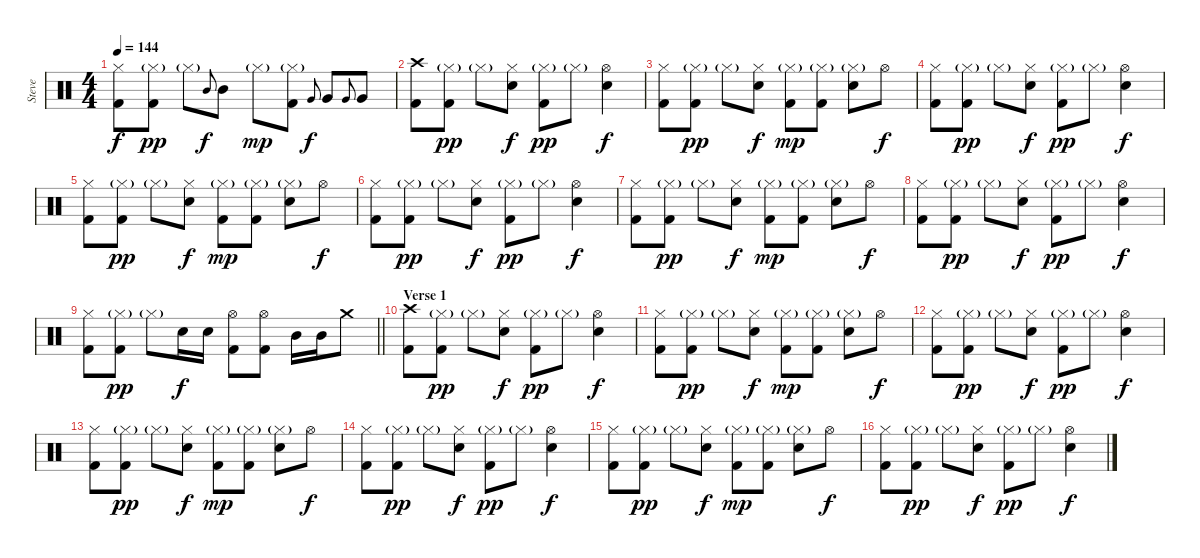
\track ("Steve" "Steve") {instrument percussion}
\staff {score}
\articulation defaults
\ts (4 4)
\tempo 144
\clef neutral
\ks c
("Hi-Hat (closed)" "Kick (hit) 2").8{dy f} ("Hi-Hat (closed)"{g} "Kick (hit) 2").8{dy pp} "Hi-Hat (closed)"{g}.8 "Mid Tom (hit)".8{gr onbeat dy f} "Mid Tom (hit)".8 "Hi-Hat (closed)"{g}.8{dy mp} ("Hi-Hat (closed)"{g} "Kick (hit) 2").8 "Very Low Tom (hit)".8{gr onbeat dy f} "Very Low Tom (hit)".8 "Very Low Tom (hit)".8{gr onbeat} "Very Low Tom (hit)".8 |
("Crash high (hit)" "Kick (hit) 2").8 ("Hi-Hat (closed)"{g} "Kick (hit) 2").8{dy pp} "Hi-Hat (closed)"{g}.8 ("Hi-Hat (closed)" "Electric Snare (hit)").8{dy f} ("Hi-Hat (closed)"{g} "Kick (hit) 2").8{dy pp} "Hi-Hat (closed)"{g}.8 ("Hi-Hat (open)" "Electric Snare (hit)").4{dy f} |
("Hi-Hat (closed)" "Kick (hit) 2").8 ("Hi-Hat (closed)"{g} "Kick (hit) 2").8{dy pp} "Hi-Hat (closed)"{g}.8 ("Hi-Hat (closed)" "Electric Snare (hit)").8{dy f} ("Hi-Hat (closed)"{g} "Kick (hit) 2").8{dy mp} ("Hi-Hat (closed)"{g} "Kick (hit) 2").8 ("Hi-Hat (closed)"{g} "Electric Snare (hit)").8 "Hi-Hat (open)".8{dy f} |
("Hi-Hat (closed)" "Kick (hit) 2").8 ("Hi-Hat (closed)"{g} "Kick (hit) 2").8{dy pp} "Hi-Hat (closed)"{g}.8 ("Hi-Hat (closed)" "Electric Snare (hit)").8{dy f} ("Hi-Hat (closed)"{g} "Kick (hit) 2").8{dy pp} "Hi-Hat (closed)"{g}.8 ("Hi-Hat (open)" "Electric Snare (hit)").4{dy f} |
("Hi-Hat (closed)" "Kick (hit) 2").8 ("Hi-Hat (closed)"{g} "Kick (hit) 2").8{dy pp} "Hi-Hat (closed)"{g}.8 ("Hi-Hat (closed)" "Electric Snare (hit)").8{dy f} ("Hi-Hat (closed)"{g} "Kick (hit) 2").8{dy mp} ("Hi-Hat (closed)"{g} "Kick (hit) 2").8 ("Hi-Hat (closed)"{g} "Electric Snare (hit)").8 "Hi-Hat (open)".8{dy f} |
("Hi-Hat (closed)" "Kick (hit) 2").8 ("Hi-Hat (closed)"{g} "Kick (hit) 2").8{dy pp} "Hi-Hat (closed)"{g}.8 ("Hi-Hat (closed)" "Electric Snare (hit)").8{dy f} ("Hi-Hat (closed)"{g} "Kick (hit) 2").8{dy pp} "Hi-Hat (closed)"{g}.8 ("Hi-Hat (open)" "Electric Snare (hit)").4{dy f} |
("Hi-Hat (closed)" "Kick (hit) 2").8 ("Hi-Hat (closed)"{g} "Kick (hit) 2").8{dy pp} "Hi-Hat (closed)"{g}.8 ("Hi-Hat (closed)" "Electric Snare (hit)").8{dy f} ("Hi-Hat (closed)"{g} "Kick (hit) 2").8{dy mp} ("Hi-Hat (closed)"{g} "Kick (hit) 2").8 ("Hi-Hat (closed)"{g} "Electric Snare (hit)").8 "Hi-Hat (open)".8{dy f} |
("Hi-Hat (closed)" "Kick (hit) 2").8 ("Hi-Hat (closed)"{g} "Kick (hit) 2").8{dy pp} "Hi-Hat (closed)"{g}.8 ("Hi-Hat (closed)" "Electric Snare (hit)").8{dy f} ("Hi-Hat (closed)"{g} "Kick (hit) 2").8{dy pp} "Hi-Hat (closed)"{g}.8 ("Hi-Hat (open)" "Electric Snare (hit)").4{dy f} |
\barLineRight lightlight
("Hi-Hat (closed)" "Kick (hit) 2").8 ("Hi-Hat (closed)"{g} "Kick (hit) 2").8{dy pp} "Hi-Hat (closed)"{g}.8 "Electric Snare (hit)".16{dy f} "Electric Snare (hit)".16 ("Hi-Hat (open)" "Kick (hit) 2").8 ("Hi-Hat (open)" "Kick (hit) 2").8 "Mid Tom (hit)".16 "Mid Tom (hit)".16 "Crash medium (hit)".8 |
\section ("" "Verse 1")
("Crash high (hit)" "Kick (hit) 2").8 ("Hi-Hat (closed)"{g} "Kick (hit) 2").8{dy pp} "Hi-Hat (closed)"{g}.8 ("Hi-Hat (closed)" "Electric Snare (hit)").8{dy f} ("Hi-Hat (closed)"{g} "Kick (hit) 2").8{dy pp} "Hi-Hat (closed)"{g}.8 ("Hi-Hat (open)" "Electric Snare (hit)").4{dy f} |
("Hi-Hat (closed)" "Kick (hit) 2").8 ("Hi-Hat (closed)"{g} "Kick (hit) 2").8{dy pp} "Hi-Hat (closed)"{g}.8 ("Hi-Hat (closed)" "Electric Snare (hit)").8{dy f} ("Hi-Hat (closed)"{g} "Kick (hit) 2").8{dy mp} ("Hi-Hat (closed)"{g} "Kick (hit) 2").8 ("Hi-Hat (closed)"{g} "Electric Snare (hit)").8 "Hi-Hat (open)".8{dy f} |
("Hi-Hat (closed)" "Kick (hit) 2").8 ("Hi-Hat (closed)"{g} "Kick (hit) 2").8{dy pp} "Hi-Hat (closed)"{g}.8 ("Hi-Hat (closed)" "Electric Snare (hit)").8{dy f} ("Hi-Hat (closed)"{g} "Kick (hit) 2").8{dy pp} "Hi-Hat (closed)"{g}.8 ("Hi-Hat (open)" "Electric Snare (hit)").4{dy f} |
("Hi-Hat (closed)" "Kick (hit) 2").8 ("Hi-Hat (closed)"{g} "Kick (hit) 2").8{dy pp} "Hi-Hat (closed)"{g}.8 ("Hi-Hat (closed)" "Electric Snare (hit)").8{dy f} ("Hi-Hat (closed)"{g} "Kick (hit) 2").8{dy mp} ("Hi-Hat (closed)"{g} "Kick (hit) 2").8 ("Hi-Hat (closed)"{g} "Electric Snare (hit)").8 "Hi-Hat (open)".8{dy f} |
("Hi-Hat (closed)" "Kick (hit) 2").8 ("Hi-Hat (closed)"{g} "Kick (hit) 2").8{dy pp} "Hi-Hat (closed)"{g}.8 ("Hi-Hat (closed)" "Electric Snare (hit)").8{dy f} ("Hi-Hat (closed)"{g} "Kick (hit) 2").8{dy pp} "Hi-Hat (closed)"{g}.8 ("Hi-Hat (open)" "Electric Snare (hit)").4{dy f} |
("Hi-Hat (closed)" "Kick (hit) 2").8 ("Hi-Hat (closed)"{g} "Kick (hit) 2").8{dy pp} "Hi-Hat (closed)"{g}.8 ("Hi-Hat (closed)" "Electric Snare (hit)").8{dy f} ("Hi-Hat (closed)"{g} "Kick (hit) 2").8{dy mp} ("Hi-Hat (closed)"{g} "Kick (hit) 2").8 ("Hi-Hat (closed)"{g} "Electric Snare (hit)").8 "Hi-Hat (open)".8{dy f} |
("Hi-Hat (closed)" "Kick (hit) 2").8 ("Hi-Hat (closed)"{g} "Kick (hit) 2").8{dy pp} "Hi-Hat (closed)"{g}.8 ("Hi-Hat (closed)" "Electric Snare (hit)").8{dy f} ("Hi-Hat (closed)"{g} "Kick (hit) 2").8{dy pp} "Hi-Hat (closed)"{g}.8 ("Hi-Hat (open)" "Electric Snare (hit)").4{dy f}
